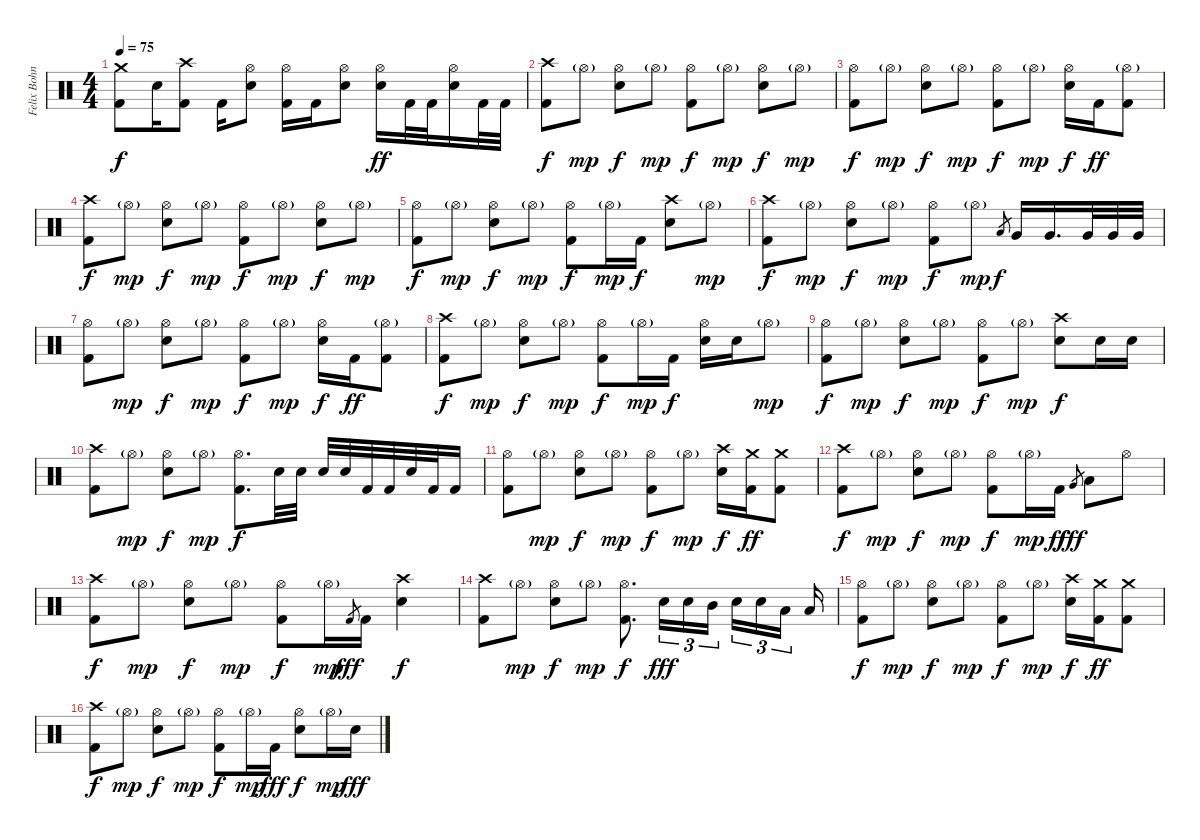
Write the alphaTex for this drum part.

\track ("Felix Bohnke" "Felix Bohn") {instrument percussion}
\staff {score}
\articulation defaults
\ts (4 4)
\tempo 75
\clef neutral
\ks c
("Crash medium (hit)" "Kick (hit) 2").8{dy f} "Snare (hit) 2".16 ("Crash high (hit)" "Kick (hit) 2").8 "Kick (hit) 2".16 ("Hi-Hat (open)" "Snare (hit) 2").8 ("Hi-Hat (open)" "Kick (hit) 2").16 "Kick (hit) 2".16 ("Hi-Hat (open)" "Snare (hit) 2").8 ("Hi-Hat (open)" "Snare (hit) 2").16{dy ff} "Kick (hit) 2".32 "Kick (hit) 2".32 ("Hi-Hat (open)" "Snare (hit) 2").16 "Kick (hit) 2".32 "Kick (hit) 2".32 |
("Crash high (hit)" "Kick (hit) 2").8{dy f} "Hi-Hat (open)"{g}.8{dy mp} ("Hi-Hat (open)" "Snare (hit) 2").8{dy f} "Hi-Hat (open)"{g}.8{dy mp} ("Hi-Hat (open)" "Kick (hit) 2").8{dy f} "Hi-Hat (open)"{g}.8{dy mp} ("Hi-Hat (open)" "Snare (hit) 2").8{dy f} "Hi-Hat (open)"{g}.8{dy mp} |
("Hi-Hat (open)" "Kick (hit) 2").8{dy f} "Hi-Hat (open)"{g}.8{dy mp} ("Hi-Hat (open)" "Snare (hit) 2").8{dy f} "Hi-Hat (open)"{g}.8{dy mp} ("Hi-Hat (open)" "Kick (hit) 2").8{dy f} "Hi-Hat (open)"{g}.8{dy mp} ("Hi-Hat (open)" "Snare (hit) 2").16{dy f} "Kick (hit) 2".16{dy ff} ("Hi-Hat (open)"{g} "Kick (hit) 2").8 |
("Crash high (hit)" "Kick (hit) 2").8{dy f} "Hi-Hat (open)"{g}.8{dy mp} ("Hi-Hat (open)" "Snare (hit) 2").8{dy f} "Hi-Hat (open)"{g}.8{dy mp} ("Hi-Hat (open)" "Kick (hit) 2").8{dy f} "Hi-Hat (open)"{g}.8{dy mp} ("Hi-Hat (open)" "Snare (hit) 2").8{dy f} "Hi-Hat (open)"{g}.8{dy mp} |
("Hi-Hat (open)" "Kick (hit) 2").8{dy f} "Hi-Hat (open)"{g}.8{dy mp} ("Hi-Hat (open)" "Snare (hit) 2").8{dy f} "Hi-Hat (open)"{g}.8{dy mp} ("Hi-Hat (open)" "Kick (hit) 2").8{dy f} "Hi-Hat (open)"{g}.16{dy mp} "Kick (hit) 2".16{dy f} ("Crash high (hit)" "Snare (hit) 2").8 "Hi-Hat (open)"{g}.8{dy mp} |
("Crash high (hit)" "Kick (hit) 2").8{dy f} "Hi-Hat (open)"{g}.8{dy mp} ("Hi-Hat (open)" "Snare (hit) 2").8{dy f} "Hi-Hat (open)"{g}.8{dy mp} ("Hi-Hat (open)" "Kick (hit) 2").8{dy f} "Hi-Hat (open)"{g}.8{dy mp} "Low Tom (hit)".8{gr dy f} "Very Low Tom (hit)".16 "Very Low Tom (hit)".16{d} "Very Low Tom (hit)".32 "Very Low Tom (hit)".32 "Very Low Tom (hit)".32 |
("Hi-Hat (open)" "Kick (hit) 2").8 "Hi-Hat (open)"{g}.8{dy mp} ("Hi-Hat (open)" "Snare (hit) 2").8{dy f} "Hi-Hat (open)"{g}.8{dy mp} ("Hi-Hat (open)" "Kick (hit) 2").8{dy f} "Hi-Hat (open)"{g}.8{dy mp} ("Hi-Hat (open)" "Snare (hit) 2").16{dy f} "Kick (hit) 2".16{dy ff} ("Hi-Hat (open)"{g} "Kick (hit) 2").8 |
("Crash high (hit)" "Kick (hit) 2").8{dy f} "Hi-Hat (open)"{g}.8{dy mp} ("Hi-Hat (open)" "Snare (hit) 2").8{dy f} "Hi-Hat (open)"{g}.8{dy mp} ("Hi-Hat (open)" "Kick (hit) 2").8{dy f} "Hi-Hat (open)"{g}.16{dy mp} "Kick (hit) 2".16{dy f} ("Hi-Hat (open)" "Snare (hit) 2").16 "Snare (hit) 2".16 "Hi-Hat (open)"{g}.8{dy mp} |
("Hi-Hat (open)" "Kick (hit) 2").8{dy f} "Hi-Hat (open)"{g}.8{dy mp} ("Hi-Hat (open)" "Snare (hit) 2").8{dy f} "Hi-Hat (open)"{g}.8{dy mp} ("Hi-Hat (open)" "Kick (hit) 2").8{dy f} "Hi-Hat (open)"{g}.8{dy mp} ("Crash high (hit)" "Snare (hit) 2").8{dy f} "Snare (hit) 2".16 "Snare (hit) 2".16 |
("Crash high (hit)" "Kick (hit) 2").8 "Hi-Hat (open)"{g}.8{dy mp} ("Hi-Hat (open)" "Snare (hit) 2").8{dy f} "Hi-Hat (open)"{g}.8{dy mp} ("Hi-Hat (open)" "Kick (hit) 2").8{d dy f} "Snare (hit) 2".32 "Snare (hit) 2".32 "Snare (hit) 2".32 "Snare (hit) 2".32 "Kick (hit) 2".32 "Kick (hit) 2".32 "Snare (hit) 2".32 "Kick (hit) 2".32 "Kick (hit) 2".16 |
("Hi-Hat (open)" "Kick (hit) 2").8 "Hi-Hat (open)"{g}.8{dy mp} ("Hi-Hat (open)" "Snare (hit) 2").8{dy f} "Hi-Hat (open)"{g}.8{dy mp} ("Hi-Hat (open)" "Kick (hit) 2").8{dy f} "Hi-Hat (open)"{g}.8{dy mp} ("Crash high (hit)" "Snare (hit) 2").16{dy f} ("Crash medium (hit)" "Kick (hit) 2").16{dy ff} ("Crash medium (hit)" "Kick (hit) 2").8 |
("Crash high (hit)" "Kick (hit) 2").8{dy f} "Hi-Hat (open)"{g}.8{dy mp} ("Hi-Hat (open)" "Snare (hit) 2").8{dy f} "Hi-Hat (open)"{g}.8{dy mp} ("Hi-Hat (open)" "Kick (hit) 2").8{dy f} "Hi-Hat (open)"{g}.16{dy mp} "Kick (hit) 2".16{dy ff} "Very Low Tom (hit)".8{gr dy fff} "Low Tom (hit)".8 "Hi-Hat (open)".8 |
("Crash high (hit)" "Kick (hit) 2").8{dy f} "Hi-Hat (open)"{g}.8{dy mp} ("Hi-Hat (open)" "Snare (hit) 2").8{dy f} "Hi-Hat (open)"{g}.8{dy mp} ("Hi-Hat (open)" "Kick (hit) 2").8{dy f} "Hi-Hat (open)"{g}.16{dy mp} "Kick (hit) 2".8{gr dy fff} "Kick (hit) 2".16 ("Crash high (hit)" "Snare (hit) 2").4{dy f} |
("Crash high (hit)" "Kick (hit) 2").8 "Hi-Hat (open)"{g}.8{dy mp} ("Hi-Hat (open)" "Snare (hit) 2").8{dy f} "Hi-Hat (open)"{g}.8{dy mp} ("Hi-Hat (open)" "Kick (hit) 2").8{d dy f} "Snare (hit) 2".16{tu (3 2) dy fff} "Snare (hit) 2".16{tu (3 2)} "Mid Tom (hit)".16{tu (3 2) beam splitsecondary} "Snare (hit) 2".16{tu (3 2)} "Snare (hit) 2".16{tu (3 2)} "Low Tom (hit)".16{tu (3 2) beam splitsecondary} "Low Tom (hit)".16 |
("Hi-Hat (open)" "Kick (hit) 2").8{dy f} "Hi-Hat (open)"{g}.8{dy mp} ("Hi-Hat (open)" "Snare (hit) 2").8{dy f} "Hi-Hat (open)"{g}.8{dy mp} ("Hi-Hat (open)" "Kick (hit) 2").8{dy f} "Hi-Hat (open)"{g}.8{dy mp} ("Crash high (hit)" "Snare (hit) 2").16{dy f} ("Crash medium (hit)" "Kick (hit) 2").16{dy ff} ("Crash medium (hit)" "Kick (hit) 2").8 |
("Crash high (hit)" "Kick (hit) 2").8{dy f} "Hi-Hat (open)"{g}.8{dy mp} ("Hi-Hat (open)" "Snare (hit) 2").8{dy f} "Hi-Hat (open)"{g}.8{dy mp} ("Hi-Hat (open)" "Kick (hit) 2").8{dy f} "Hi-Hat (open)"{g}.16{dy mp} "Kick (hit) 2".16{dy fff} ("Hi-Hat (open)" "Snare (hit) 2").8{dy f} "Hi-Hat (open)"{g}.16{dy mp} "Snare (hit) 2".16{dy fff}
